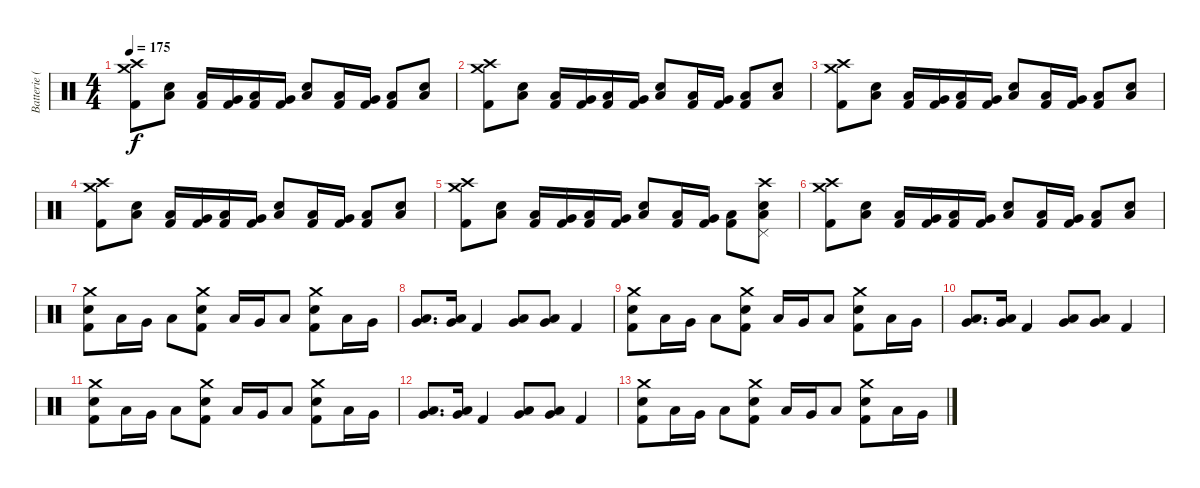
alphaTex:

\track ("Batterie (Tré Cool)" "Batterie (") {instrument percussion}
\staff {score}
\articulation defaults
\ts (4 4)
\tempo 175
\clef neutral
\ks c
("Crash medium (hit)" "Crash high (hit)" "Kick (hit) 2").8{dy f} ("Low Floor Tom (hit)" "Electric Snare (hit)").8 ("Low Floor Tom (hit)" "Kick (hit) 2").16 ("Very Low Tom (hit)" "Kick (hit) 2").16 ("Low Floor Tom (hit)" "Kick (hit) 2").16 ("Very Low Tom (hit)" "Kick (hit) 2").16 ("Low Floor Tom (hit)" "Electric Snare (hit)").8 ("Low Floor Tom (hit)" "Kick (hit) 2").16 ("Very Low Tom (hit)" "Kick (hit) 2").16 ("Low Floor Tom (hit)" "Kick (hit) 2").8 ("Low Floor Tom (hit)" "Electric Snare (hit)").8 |
("Crash medium (hit)" "Crash high (hit)" "Kick (hit) 2").8 ("Low Floor Tom (hit)" "Electric Snare (hit)").8 ("Low Floor Tom (hit)" "Kick (hit) 2").16 ("Very Low Tom (hit)" "Kick (hit) 2").16 ("Low Floor Tom (hit)" "Kick (hit) 2").16 ("Very Low Tom (hit)" "Kick (hit) 2").16 ("Low Floor Tom (hit)" "Electric Snare (hit)").8 ("Low Floor Tom (hit)" "Kick (hit) 2").16 ("Very Low Tom (hit)" "Kick (hit) 2").16 ("Low Floor Tom (hit)" "Kick (hit) 2").8 ("Low Floor Tom (hit)" "Electric Snare (hit)").8 |
("Crash medium (hit)" "Crash high (hit)" "Kick (hit) 2").8 ("Low Floor Tom (hit)" "Electric Snare (hit)").8 ("Low Floor Tom (hit)" "Kick (hit) 2").16 ("Very Low Tom (hit)" "Kick (hit) 2").16 ("Low Floor Tom (hit)" "Kick (hit) 2").16 ("Very Low Tom (hit)" "Kick (hit) 2").16 ("Low Floor Tom (hit)" "Electric Snare (hit)").8 ("Low Floor Tom (hit)" "Kick (hit) 2").16 ("Very Low Tom (hit)" "Kick (hit) 2").16 ("Low Floor Tom (hit)" "Kick (hit) 2").8 ("Low Floor Tom (hit)" "Electric Snare (hit)").8 |
("Crash medium (hit)" "Crash high (hit)" "Kick (hit) 2").8 ("Low Floor Tom (hit)" "Electric Snare (hit)").8 ("Low Floor Tom (hit)" "Kick (hit) 2").16 ("Very Low Tom (hit)" "Kick (hit) 2").16 ("Low Floor Tom (hit)" "Kick (hit) 2").16 ("Very Low Tom (hit)" "Kick (hit) 2").16 ("Low Floor Tom (hit)" "Electric Snare (hit)").8 ("Low Floor Tom (hit)" "Kick (hit) 2").16 ("Very Low Tom (hit)" "Kick (hit) 2").16 ("Low Floor Tom (hit)" "Kick (hit) 2").8 ("Low Floor Tom (hit)" "Electric Snare (hit)").8 |
("Crash medium (hit)" "Crash high (hit)" "Kick (hit) 2").8 ("Low Floor Tom (hit)" "Electric Snare (hit)").8 ("Low Floor Tom (hit)" "Kick (hit) 2").16 ("Very Low Tom (hit)" "Kick (hit) 2").16 ("Low Floor Tom (hit)" "Kick (hit) 2").16 ("Very Low Tom (hit)" "Kick (hit) 2").16 ("Low Floor Tom (hit)" "Electric Snare (hit)").8 ("Low Floor Tom (hit)" "Kick (hit) 2").16 ("Very Low Tom (hit)" "Kick (hit) 2").16 ("Low Floor Tom (hit)" "Kick (hit) 2").8 ("Low Floor Tom (hit)" "Crash high (hit)" "Pedal Hi-Hat (hit)" "Electric Snare (hit)").8 |
("Crash medium (hit)" "Crash high (hit)" "Kick (hit) 2").8 ("Low Floor Tom (hit)" "Electric Snare (hit)").8 ("Low Floor Tom (hit)" "Kick (hit) 2").16 ("Very Low Tom (hit)" "Kick (hit) 2").16 ("Low Floor Tom (hit)" "Kick (hit) 2").16 ("Very Low Tom (hit)" "Kick (hit) 2").16 ("Low Floor Tom (hit)" "Electric Snare (hit)").8 ("Low Floor Tom (hit)" "Kick (hit) 2").16 ("Very Low Tom (hit)" "Kick (hit) 2").16 ("Low Floor Tom (hit)" "Kick (hit) 2").8 ("Low Floor Tom (hit)" "Electric Snare (hit)").8 |
("Crash medium (hit)" "Electric Snare (hit)" "Kick (hit) 2").8 "Low Floor Tom (hit)".16 "Very Low Tom (hit)".16 "Low Floor Tom (hit)".8 ("Crash medium (hit)" "Electric Snare (hit)" "Kick (hit) 2").8 "Low Floor Tom (hit)".16 "Very Low Tom (hit)".16 "Low Floor Tom (hit)".8 ("Crash medium (hit)" "Electric Snare (hit)" "Kick (hit) 2").8 "Low Floor Tom (hit)".16 "Very Low Tom (hit)".16 |
("Very Low Tom (hit)" "Low Tom (hit)").8{d} ("Very Low Tom (hit)" "Low Tom (hit)").16 "Kick (hit) 2".4 ("Low Floor Tom (hit)" "Very Low Tom (hit)").8 ("Low Floor Tom (hit)" "Very Low Tom (hit)").8 "Kick (hit) 2".4 |
("Crash medium (hit)" "Electric Snare (hit)" "Kick (hit) 2").8 "Low Floor Tom (hit)".16 "Very Low Tom (hit)".16 "Low Floor Tom (hit)".8 ("Crash medium (hit)" "Electric Snare (hit)" "Kick (hit) 2").8 "Low Floor Tom (hit)".16 "Very Low Tom (hit)".16 "Low Floor Tom (hit)".8 ("Crash medium (hit)" "Electric Snare (hit)" "Kick (hit) 2").8 "Low Floor Tom (hit)".16 "Very Low Tom (hit)".16 |
("Very Low Tom (hit)" "Low Tom (hit)").8{d} ("Very Low Tom (hit)" "Low Tom (hit)").16 "Kick (hit) 2".4 ("Low Floor Tom (hit)" "Very Low Tom (hit)").8 ("Low Floor Tom (hit)" "Very Low Tom (hit)").8 "Kick (hit) 2".4 |
("Crash medium (hit)" "Electric Snare (hit)" "Kick (hit) 2").8 "Low Floor Tom (hit)".16 "Very Low Tom (hit)".16 "Low Floor Tom (hit)".8 ("Crash medium (hit)" "Electric Snare (hit)" "Kick (hit) 2").8 "Low Floor Tom (hit)".16 "Very Low Tom (hit)".16 "Low Floor Tom (hit)".8 ("Crash medium (hit)" "Electric Snare (hit)" "Kick (hit) 2").8 "Low Floor Tom (hit)".16 "Very Low Tom (hit)".16 |
("Very Low Tom (hit)" "Low Tom (hit)").8{d} ("Very Low Tom (hit)" "Low Tom (hit)").16 "Kick (hit) 2".4 ("Low Floor Tom (hit)" "Very Low Tom (hit)").8 ("Low Floor Tom (hit)" "Very Low Tom (hit)").8 "Kick (hit) 2".4 |
("Crash medium (hit)" "Electric Snare (hit)" "Kick (hit) 2").8 "Low Floor Tom (hit)".16 "Very Low Tom (hit)".16 "Low Floor Tom (hit)".8 ("Crash medium (hit)" "Electric Snare (hit)" "Kick (hit) 2").8 "Low Floor Tom (hit)".16 "Very Low Tom (hit)".16 "Low Floor Tom (hit)".8 ("Crash medium (hit)" "Electric Snare (hit)" "Kick (hit) 2").8 "Low Floor Tom (hit)".16 "Very Low Tom (hit)".16
